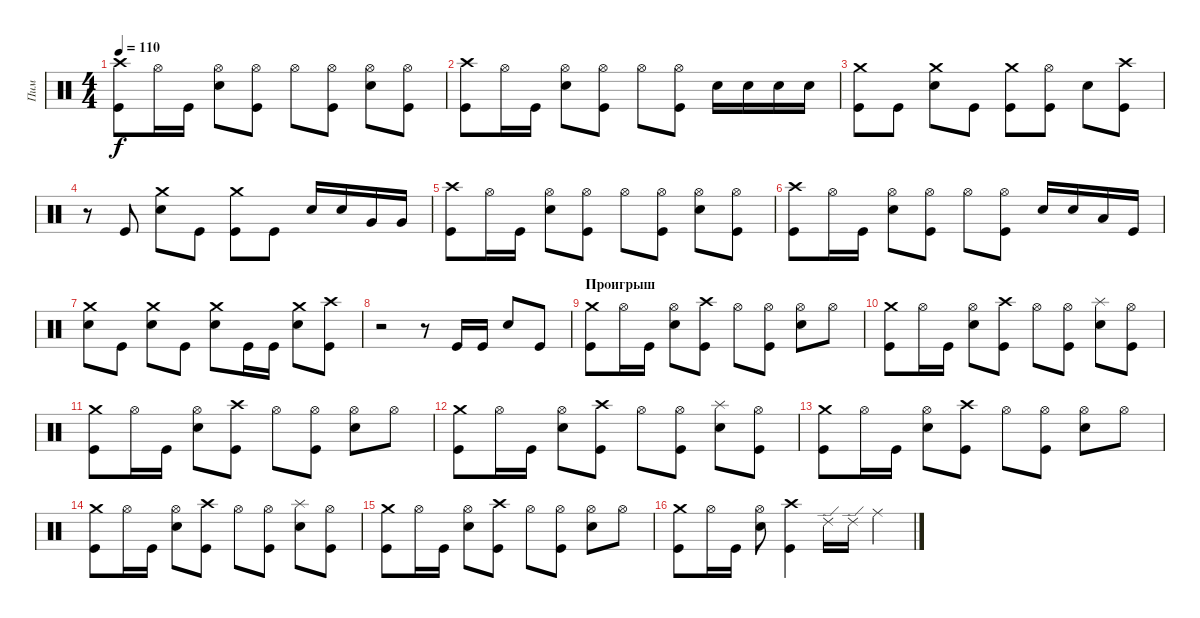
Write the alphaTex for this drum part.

\track ("Пим" "Пим") {instrument percussion}
\staff {score}
\articulation defaults
\ts (4 4)
\tempo 110
\clef neutral
\ks c
("Crash high (hit)" "Kick (hit)").8{dy f} "Hi-Hat (open)".16 "Kick (hit)".16 ("Hi-Hat (open)" "Snare (hit) 2").8 ("Hi-Hat (open)" "Kick (hit)").8 "Hi-Hat (open)".8 ("Hi-Hat (open)" "Kick (hit)").8 ("Hi-Hat (open)" "Snare (hit) 2").8 ("Hi-Hat (open)" "Kick (hit)").8 |
("Crash high (hit)" "Kick (hit)").8 "Hi-Hat (open)".16 "Kick (hit)".16 ("Hi-Hat (open)" "Snare (hit) 2").8 ("Hi-Hat (open)" "Kick (hit)").8 "Hi-Hat (open)".8 ("Hi-Hat (open)" "Kick (hit)").8 "Snare (hit) 2".16 "Snare (hit) 2".16 "Snare (hit) 2".16 "Snare (hit) 2".16 |
("Crash medium (hit)" "Kick (hit)").8 "Kick (hit)".8 ("Crash medium (hit)" "Snare (hit) 2").8 "Kick (hit)".8 ("Crash medium (hit)" "Kick (hit)").8 ("Hi-Hat (open)" "Kick (hit)").8 "Snare (hit) 2".8 ("Crash high (hit)" "Kick (hit)").8 |
r.8 "Kick (hit)".8 ("Crash medium (hit)" "Snare (hit) 2").8 "Kick (hit)".8 ("Crash medium (hit)" "Kick (hit)").8 "Kick (hit)".8 "Snare (hit) 2".16 "Snare (hit) 2".16 "Very Low Tom (hit)".16 "Very Low Tom (hit)".16 |
("Crash high (hit)" "Kick (hit)").8 "Hi-Hat (open)".16 "Kick (hit)".16 ("Hi-Hat (open)" "Snare (hit) 2").8 ("Hi-Hat (open)" "Kick (hit)").8 "Hi-Hat (open)".8 ("Hi-Hat (open)" "Kick (hit)").8 ("Hi-Hat (open)" "Snare (hit) 2").8 ("Hi-Hat (open)" "Kick (hit)").8 |
("Crash high (hit)" "Kick (hit)").8 "Hi-Hat (open)".16 "Kick (hit)".16 ("Hi-Hat (open)" "Snare (hit) 2").8 ("Hi-Hat (open)" "Kick (hit)").8 "Hi-Hat (open)".8 ("Hi-Hat (open)" "Kick (hit)").8 "Snare (hit) 2".16 "Snare (hit) 2".16 "Low Tom (hit)".16 "Kick (hit)".16 |
("Crash medium (hit)" "Snare (hit) 2").8 "Kick (hit)".8 ("Crash medium (hit)" "Snare (hit) 2").8 "Kick (hit)".8 ("Crash medium (hit)" "Snare (hit) 2").8 "Kick (hit)".16 "Kick (hit)".16 ("Crash medium (hit)" "Snare (hit) 2").8 ("Crash high (hit)" "Kick (hit)").8 |
r.2 r.8 "Kick (hit)".16 "Kick (hit)".16 "Snare (hit) 2".8 "Kick (hit)".8 |
\section ("" "Проигрыш")
("Crash medium (hit)" "Kick (hit)").8 "Hi-Hat (open)".16 "Kick (hit)".16 ("Hi-Hat (open)" "Snare (hit) 2").8 ("Crash high (hit)" "Kick (hit)").8 "Hi-Hat (open)".8 ("Hi-Hat (open)" "Kick (hit)").8 ("Hi-Hat (open)" "Snare (hit) 2").8 "Hi-Hat (open)".8 |
("Crash medium (hit)" "Kick (hit)").8 "Hi-Hat (open)".16 "Kick (hit)".16 ("Hi-Hat (open)" "Snare (hit) 2").8 ("Crash high (hit)" "Kick (hit)").8 "Hi-Hat (open)".8 ("Hi-Hat (open)" "Kick (hit)").8 ("Splash (hit)" "Snare (hit) 2").8 ("Hi-Hat (open)" "Kick (hit)").8 |
("Crash medium (hit)" "Kick (hit)").8 "Hi-Hat (open)".16 "Kick (hit)".16 ("Hi-Hat (open)" "Snare (hit) 2").8 ("Crash high (hit)" "Kick (hit)").8 "Hi-Hat (open)".8 ("Hi-Hat (open)" "Kick (hit)").8 ("Hi-Hat (open)" "Snare (hit) 2").8 "Hi-Hat (open)".8 |
("Crash medium (hit)" "Kick (hit)").8 "Hi-Hat (open)".16 "Kick (hit)".16 ("Hi-Hat (open)" "Snare (hit) 2").8 ("Crash high (hit)" "Kick (hit)").8 "Hi-Hat (open)".8 ("Hi-Hat (open)" "Kick (hit)").8 ("Splash (hit)" "Snare (hit) 2").8 ("Hi-Hat (open)" "Kick (hit)").8 |
("Crash medium (hit)" "Kick (hit)").8 "Hi-Hat (open)".16 "Kick (hit)".16 ("Hi-Hat (open)" "Snare (hit) 2").8 ("Crash high (hit)" "Kick (hit)").8 "Hi-Hat (open)".8 ("Hi-Hat (open)" "Kick (hit)").8 ("Hi-Hat (open)" "Snare (hit) 2").8 "Hi-Hat (open)".8 |
("Crash medium (hit)" "Kick (hit)").8 "Hi-Hat (open)".16 "Kick (hit)".16 ("Hi-Hat (open)" "Snare (hit) 2").8 ("Crash high (hit)" "Kick (hit)").8 "Hi-Hat (open)".8 ("Hi-Hat (open)" "Kick (hit)").8 ("Splash (hit)" "Snare (hit) 2").8 ("Hi-Hat (open)" "Kick (hit)").8 |
("Crash medium (hit)" "Kick (hit)").8 "Hi-Hat (open)".16 "Kick (hit)".16 ("Hi-Hat (open)" "Snare (hit) 2").8 ("Crash high (hit)" "Kick (hit)").8 "Hi-Hat (open)".8 ("Hi-Hat (open)" "Kick (hit)").8 ("Hi-Hat (open)" "Snare (hit) 2").8 "Hi-Hat (open)".8 |
("Crash medium (hit)" "Kick (hit)").8 "Hi-Hat (open)".16 "Kick (hit)".16 ("Hi-Hat (open)" "Snare (hit) 2").8 ("Crash high (hit)" "Kick (hit)").4 "Ride (edge) 2".16 "Ride (edge) 2".16 "Ride (middle)".4
